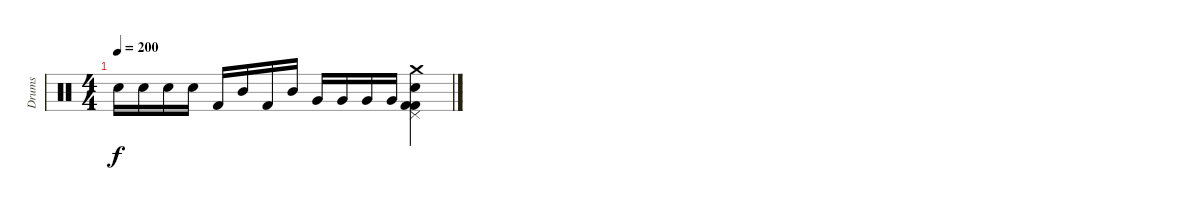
\track ("Drums" "Drums") {instrument percussion}
\staff {score}
\articulation defaults
\ts (4 4)
\tempo 200
\clef neutral
\ks c "Electric Snare (hit)".16{dy f} "Snare (hit) 2".16 "Electric Snare (hit)".16 "Snare (hit) 2".16 "Kick (hit) 2".16 "Mid Tom (hit)".16 "Kick (hit) 2".16 "Mid Tom (hit)".16 "Very Low Tom (hit)".16 "Very Low Tom (hit)".16 "Very Low Tom (hit)".16 "Very Low Tom (hit)".16
("Pedal Hi-Hat (hit)" "Crash medium (hit)" "Snare (hit) 2" "Kick (hit) 2" "Kick (hit) 2").4
